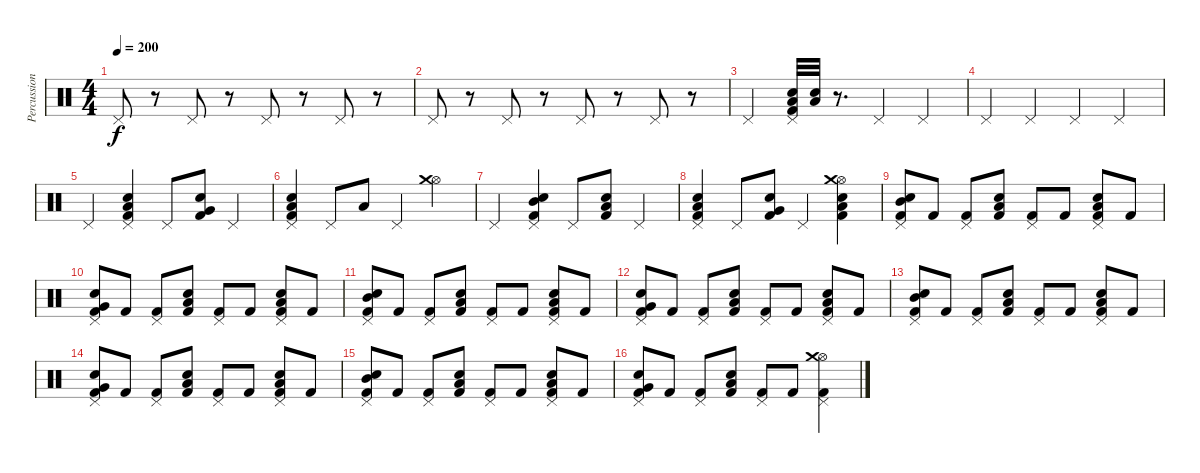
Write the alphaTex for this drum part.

\track ("Percussion" "Percussion") {instrument percussion}
\staff {score}
\articulation defaults
\ts (4 4)
\tempo 200
\clef neutral
\ks c "Pedal Hi-Hat (hit)".8{dy f}
r.8 "Pedal Hi-Hat (hit)".8 r.8 "Pedal Hi-Hat (hit)".8 r.8 "Pedal Hi-Hat (hit)".8 r.8 |
"Pedal Hi-Hat (hit)".8 r.8 "Pedal Hi-Hat (hit)".8 r.8 "Pedal Hi-Hat (hit)".8 r.8 "Pedal Hi-Hat (hit)".8 r.8 |
"Pedal Hi-Hat (hit)".4 ("Pedal Hi-Hat (hit)" "Snare (hit) 2" "Low Tom (hit)" "Kick (hit) 2").32 ("Snare (hit) 2" "Low Tom (hit)").32 r.8{d} "Pedal Hi-Hat (hit)".4 "Pedal Hi-Hat (hit)".4 |
"Pedal Hi-Hat (hit)".4 "Pedal Hi-Hat (hit)".4 "Pedal Hi-Hat (hit)".4 "Pedal Hi-Hat (hit)".4 |
"Pedal Hi-Hat (hit)".4 ("Pedal Hi-Hat (hit)" "Snare (hit) 2" "Low Tom (hit)" "Kick (hit) 2").4 "Pedal Hi-Hat (hit)".8 ("Snare (hit) 2" "Very Low Tom (hit)" "Kick (hit) 2").8 "Pedal Hi-Hat (hit)".4 |
("Pedal Hi-Hat (hit)" "Snare (hit) 2" "Low Tom (hit)" "Kick (hit) 2").4 "Pedal Hi-Hat (hit)".8 "Low Tom (hit)".8 "Pedal Hi-Hat (hit)".4 ("Hi-Hat (open)" "Crash medium (hit)").4 |
"Pedal Hi-Hat (hit)".4 ("Pedal Hi-Hat (hit)" "Snare (hit) 2" "Mid Tom (hit)" "Kick (hit) 2").4 "Pedal Hi-Hat (hit)".8 ("Snare (hit) 2" "Low Tom (hit)" "Kick (hit) 2").8 "Pedal Hi-Hat (hit)".4 |
("Pedal Hi-Hat (hit)" "Snare (hit) 2" "Low Tom (hit)" "Kick (hit) 2").4 "Pedal Hi-Hat (hit)".8 ("Snare (hit) 2" "Very Low Tom (hit)" "Kick (hit) 2").8 "Pedal Hi-Hat (hit)".4 ("Hi-Hat (open)" "Crash medium (hit)" "Snare (hit) 2" "Low Floor Tom (hit)" "Kick (hit) 2").4 |
("Pedal Hi-Hat (hit)" "Snare (hit) 2" "Mid Tom (hit)" "Kick (hit) 2").8 "Kick (hit) 2".8 ("Pedal Hi-Hat (hit)" "Kick (hit) 2").8 ("Snare (hit) 2" "Low Tom (hit)" "Kick (hit) 2").8 ("Pedal Hi-Hat (hit)" "Kick (hit) 2").8 "Kick (hit) 2".8 ("Pedal Hi-Hat (hit)" "Snare (hit) 2" "Low Tom (hit)" "Kick (hit) 2").8 "Kick (hit) 2".8 |
("Pedal Hi-Hat (hit)" "Snare (hit) 2" "Very Low Tom (hit)" "Kick (hit) 2").8 "Kick (hit) 2".8 ("Pedal Hi-Hat (hit)" "Kick (hit) 2").8 ("Snare (hit) 2" "Low Floor Tom (hit)" "Kick (hit) 2").8 ("Pedal Hi-Hat (hit)" "Kick (hit) 2").8 "Kick (hit) 2".8 ("Pedal Hi-Hat (hit)" "Snare (hit) 2" "Low Floor Tom (hit)" "Kick (hit) 2").8 "Kick (hit) 2".8 |
("Pedal Hi-Hat (hit)" "Snare (hit) 2" "Mid Tom (hit)" "Kick (hit) 2").8 "Kick (hit) 2".8 ("Pedal Hi-Hat (hit)" "Kick (hit) 2").8 ("Snare (hit) 2" "Low Tom (hit)" "Kick (hit) 2").8 ("Pedal Hi-Hat (hit)" "Kick (hit) 2").8 "Kick (hit) 2".8 ("Pedal Hi-Hat (hit)" "Snare (hit) 2" "Low Tom (hit)" "Kick (hit) 2").8 "Kick (hit) 2".8 |
("Pedal Hi-Hat (hit)" "Snare (hit) 2" "Very Low Tom (hit)" "Kick (hit) 2").8 "Kick (hit) 2".8 ("Pedal Hi-Hat (hit)" "Kick (hit) 2").8 ("Snare (hit) 2" "Low Floor Tom (hit)" "Kick (hit) 2").8 ("Pedal Hi-Hat (hit)" "Kick (hit) 2").8 "Kick (hit) 2".8 ("Pedal Hi-Hat (hit)" "Snare (hit) 2" "Low Floor Tom (hit)" "Kick (hit) 2").8 "Kick (hit) 2".8 |
("Pedal Hi-Hat (hit)" "Snare (hit) 2" "Mid Tom (hit)" "Kick (hit) 2").8 "Kick (hit) 2".8 ("Pedal Hi-Hat (hit)" "Kick (hit) 2").8 ("Snare (hit) 2" "Low Tom (hit)" "Kick (hit) 2").8 ("Pedal Hi-Hat (hit)" "Kick (hit) 2").8 "Kick (hit) 2".8 ("Pedal Hi-Hat (hit)" "Snare (hit) 2" "Low Tom (hit)" "Kick (hit) 2").8 "Kick (hit) 2".8 |
("Pedal Hi-Hat (hit)" "Snare (hit) 2" "Very Low Tom (hit)" "Kick (hit) 2").8 "Kick (hit) 2".8 ("Pedal Hi-Hat (hit)" "Kick (hit) 2").8 ("Snare (hit) 2" "Low Floor Tom (hit)" "Kick (hit) 2").8 ("Pedal Hi-Hat (hit)" "Kick (hit) 2").8 "Kick (hit) 2".8 ("Pedal Hi-Hat (hit)" "Snare (hit) 2" "Low Floor Tom (hit)" "Kick (hit) 2").8 "Kick (hit) 2".8 |
("Pedal Hi-Hat (hit)" "Snare (hit) 2" "Mid Tom (hit)" "Kick (hit) 2").8 "Kick (hit) 2".8 ("Pedal Hi-Hat (hit)" "Kick (hit) 2").8 ("Snare (hit) 2" "Low Tom (hit)" "Kick (hit) 2").8 ("Pedal Hi-Hat (hit)" "Kick (hit) 2").8 "Kick (hit) 2".8 ("Pedal Hi-Hat (hit)" "Snare (hit) 2" "Low Tom (hit)" "Kick (hit) 2").8 "Kick (hit) 2".8 |
("Pedal Hi-Hat (hit)" "Snare (hit) 2" "Very Low Tom (hit)" "Kick (hit) 2").8 "Kick (hit) 2".8 ("Pedal Hi-Hat (hit)" "Kick (hit) 2").8 ("Snare (hit) 2" "Low Floor Tom (hit)" "Kick (hit) 2").8 ("Pedal Hi-Hat (hit)" "Kick (hit) 2").8 "Kick (hit) 2".8 ("Pedal Hi-Hat (hit)" "Hi-Hat (open)" "Crash medium (hit)" "Kick (hit) 2").4
